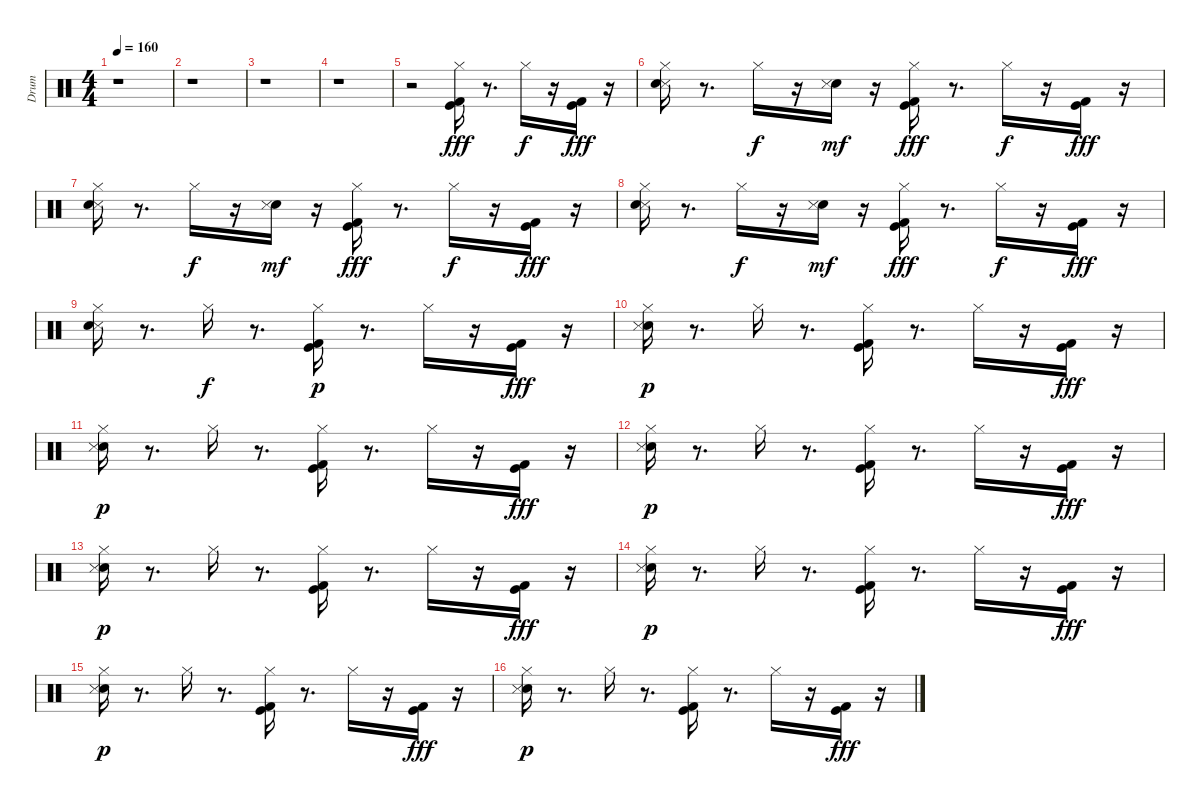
\track ("Drum" "Drum") {instrument percussion}
\staff {score}
\articulation defaults
\ts (4 4)
\tempo 160
\clef neutral
\ks c
r.1{dy fff} |
r.1 |
r.1 |
r.1 |
r.2 ("Kick (hit)" "Kick (hit) 2" "Hi-Hat (closed)").16 r.8{d} "Hi-Hat (closed)".16{dy f} r.16 ("Kick (hit)" "Kick (hit) 2").16{dy fff} r.16 |
("Hi-Hat (closed)" "Snare (side stick) 3" "Hand Clap (hit)").16 r.8{d} "Hi-Hat (closed)".16{dy f} r.16 ("Hand Clap (hit)" "Snare (side stick) 3").16{dy mf} r.16 ("Kick (hit)" "Kick (hit) 2" "Hi-Hat (closed)").16{dy fff} r.8{d} "Hi-Hat (closed)".16{dy f} r.16 ("Kick (hit)" "Kick (hit) 2").16{dy fff} r.16 |
("Hi-Hat (closed)" "Snare (side stick) 3" "Hand Clap (hit)").16 r.8{d} "Hi-Hat (closed)".16{dy f} r.16 ("Hand Clap (hit)" "Snare (side stick) 3").16{dy mf} r.16 ("Kick (hit)" "Kick (hit) 2" "Hi-Hat (closed)").16{dy fff} r.8{d} "Hi-Hat (closed)".16{dy f} r.16 ("Kick (hit)" "Kick (hit) 2").16{dy fff} r.16 |
("Hi-Hat (closed)" "Snare (side stick) 3" "Hand Clap (hit)").16 r.8{d} "Hi-Hat (closed)".16{dy f} r.16 ("Hand Clap (hit)" "Snare (side stick) 3").16{dy mf} r.16 ("Kick (hit)" "Kick (hit) 2" "Hi-Hat (closed)").16{dy fff} r.8{d} "Hi-Hat (closed)".16{dy f} r.16 ("Kick (hit)" "Kick (hit) 2").16{dy fff} r.16 |
("Hi-Hat (closed)" "Snare (side stick) 3" "Hand Clap (hit)").16 r.8{d} "Hi-Hat (closed)".16{dy f} r.8{d} ("Kick (hit)" "Kick (hit) 2" "Hi-Hat (closed)").16{dy p} r.8{d} "Hi-Hat (closed)".16 r.16 ("Kick (hit)" "Kick (hit) 2").16{dy fff} r.16 |
("Hand Clap (hit)" "Snare (side stick) 3" "Hi-Hat (closed)").16{dy p} r.8{d} "Hi-Hat (closed)".16 r.8{d} ("Kick (hit)" "Kick (hit) 2" "Hi-Hat (closed)").16 r.8{d} "Hi-Hat (closed)".16 r.16 ("Kick (hit)" "Kick (hit) 2").16{dy fff} r.16 |
("Hand Clap (hit)" "Snare (side stick) 3" "Hi-Hat (closed)").16{dy p} r.8{d} "Hi-Hat (closed)".16 r.8{d} ("Kick (hit)" "Kick (hit) 2" "Hi-Hat (closed)").16 r.8{d} "Hi-Hat (closed)".16 r.16 ("Kick (hit)" "Kick (hit) 2").16{dy fff} r.16 |
("Hand Clap (hit)" "Snare (side stick) 3" "Hi-Hat (closed)").16{dy p} r.8{d} "Hi-Hat (closed)".16 r.8{d} ("Kick (hit)" "Kick (hit) 2" "Hi-Hat (closed)").16 r.8{d} "Hi-Hat (closed)".16 r.16 ("Kick (hit)" "Kick (hit) 2").16{dy fff} r.16 |
("Hand Clap (hit)" "Snare (side stick) 3" "Hi-Hat (closed)").16{dy p} r.8{d} "Hi-Hat (closed)".16 r.8{d} ("Kick (hit)" "Kick (hit) 2" "Hi-Hat (closed)").16 r.8{d} "Hi-Hat (closed)".16 r.16 ("Kick (hit)" "Kick (hit) 2").16{dy fff} r.16 |
("Hand Clap (hit)" "Snare (side stick) 3" "Hi-Hat (closed)").16{dy p} r.8{d} "Hi-Hat (closed)".16 r.8{d} ("Kick (hit)" "Kick (hit) 2" "Hi-Hat (closed)").16 r.8{d} "Hi-Hat (closed)".16 r.16 ("Kick (hit)" "Kick (hit) 2").16{dy fff} r.16 |
("Hand Clap (hit)" "Snare (side stick) 3" "Hi-Hat (closed)").16{dy p} r.8{d} "Hi-Hat (closed)".16 r.8{d} ("Kick (hit)" "Kick (hit) 2" "Hi-Hat (closed)").16 r.8{d} "Hi-Hat (closed)".16 r.16 ("Kick (hit)" "Kick (hit) 2").16{dy fff} r.16 |
("Hand Clap (hit)" "Snare (side stick) 3" "Hi-Hat (closed)").16{dy p} r.8{d} "Hi-Hat (closed)".16 r.8{d} ("Kick (hit)" "Kick (hit) 2" "Hi-Hat (closed)").16 r.8{d} "Hi-Hat (closed)".16 r.16 ("Kick (hit)" "Kick (hit) 2").16{dy fff} r.16
